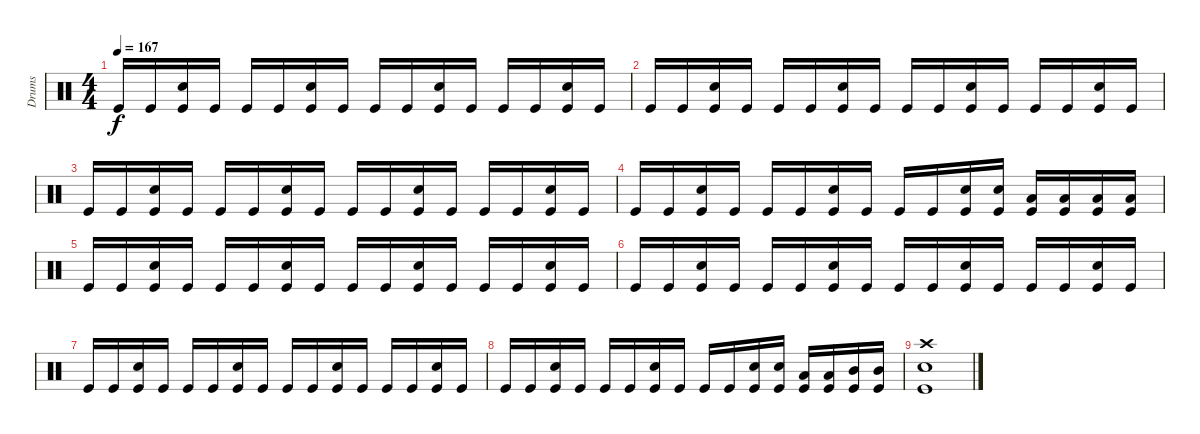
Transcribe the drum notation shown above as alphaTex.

\track ("Drums" "Drums") {instrument percussion}
\staff {score}
\articulation defaults
\ts (4 4)
\tempo 167
\clef neutral
\ks c "Kick (hit)".16{dy f} "Kick (hit)".16
("Snare (hit) 2" "Kick (hit)").16 "Kick (hit)".16 "Kick (hit)".16 "Kick (hit)".16 ("Snare (hit) 2" "Kick (hit)").16 "Kick (hit)".16 "Kick (hit)".16 "Kick (hit)".16 ("Snare (hit) 2" "Kick (hit)").16 "Kick (hit)".16 "Kick (hit)".16 "Kick (hit)".16 ("Snare (hit) 2" "Kick (hit)").16 "Kick (hit)".16 |
"Kick (hit)".16 "Kick (hit)".16 ("Snare (hit) 2" "Kick (hit)").16 "Kick (hit)".16 "Kick (hit)".16 "Kick (hit)".16 ("Snare (hit) 2" "Kick (hit)").16 "Kick (hit)".16 "Kick (hit)".16 "Kick (hit)".16 ("Snare (hit) 2" "Kick (hit)").16 "Kick (hit)".16 "Kick (hit)".16 "Kick (hit)".16 ("Snare (hit) 2" "Kick (hit)").16 "Kick (hit)".16 |
"Kick (hit)".16 "Kick (hit)".16 ("Snare (hit) 2" "Kick (hit)").16 "Kick (hit)".16 "Kick (hit)".16 "Kick (hit)".16 ("Snare (hit) 2" "Kick (hit)").16 "Kick (hit)".16 "Kick (hit)".16 "Kick (hit)".16 ("Snare (hit) 2" "Kick (hit)").16 "Kick (hit)".16 "Kick (hit)".16 "Kick (hit)".16 ("Snare (hit) 2" "Kick (hit)").16 "Kick (hit)".16 |
"Kick (hit)".16 "Kick (hit)".16 ("Snare (hit) 2" "Kick (hit)").16 "Kick (hit)".16 "Kick (hit)".16 "Kick (hit)".16 ("Snare (hit) 2" "Kick (hit)").16 "Kick (hit)".16 "Kick (hit)".16 "Kick (hit)".16 ("Snare (hit) 2" "Kick (hit)").16 ("Snare (hit) 2" "Kick (hit)").16 ("Low Floor Tom (hit)" "Kick (hit)").16 ("Low Floor Tom (hit)" "Kick (hit)").16 ("Low Tom (hit)" "Kick (hit)").16 ("Low Tom (hit)" "Kick (hit)").16 |
"Kick (hit)".16 "Kick (hit)".16 ("Snare (hit) 2" "Kick (hit)").16 "Kick (hit)".16 "Kick (hit)".16 "Kick (hit)".16 ("Snare (hit) 2" "Kick (hit)").16 "Kick (hit)".16 "Kick (hit)".16 "Kick (hit)".16 ("Snare (hit) 2" "Kick (hit)").16 "Kick (hit)".16 "Kick (hit)".16 "Kick (hit)".16 ("Snare (hit) 2" "Kick (hit)").16 "Kick (hit)".16 |
"Kick (hit)".16 "Kick (hit)".16 ("Snare (hit) 2" "Kick (hit)").16 "Kick (hit)".16 "Kick (hit)".16 "Kick (hit)".16 ("Snare (hit) 2" "Kick (hit)").16 "Kick (hit)".16 "Kick (hit)".16 "Kick (hit)".16 ("Snare (hit) 2" "Kick (hit)").16 "Kick (hit)".16 "Kick (hit)".16 "Kick (hit)".16 ("Snare (hit) 2" "Kick (hit)").16 "Kick (hit)".16 |
"Kick (hit)".16 "Kick (hit)".16 ("Snare (hit) 2" "Kick (hit)").16 "Kick (hit)".16 "Kick (hit)".16 "Kick (hit)".16 ("Snare (hit) 2" "Kick (hit)").16 "Kick (hit)".16 "Kick (hit)".16 "Kick (hit)".16 ("Snare (hit) 2" "Kick (hit)").16 "Kick (hit)".16 "Kick (hit)".16 "Kick (hit)".16 ("Snare (hit) 2" "Kick (hit)").16 "Kick (hit)".16 |
"Kick (hit)".16 "Kick (hit)".16 ("Snare (hit) 2" "Kick (hit)").16 "Kick (hit)".16 "Kick (hit)".16 "Kick (hit)".16 ("Snare (hit) 2" "Kick (hit)").16 "Kick (hit)".16 "Kick (hit)".16 "Kick (hit)".16 ("Snare (hit) 2" "Kick (hit)").16 ("Snare (hit) 2" "Kick (hit)").16 ("Low Floor Tom (hit)" "Kick (hit)").16 ("Low Floor Tom (hit)" "Kick (hit)").16 ("Mid Tom (hit)" "Kick (hit)").16 ("Mid Tom (hit)" "Kick (hit)").16 |
("Crash high (hit)" "Electric Snare (hit)" "Kick (hit)").1
